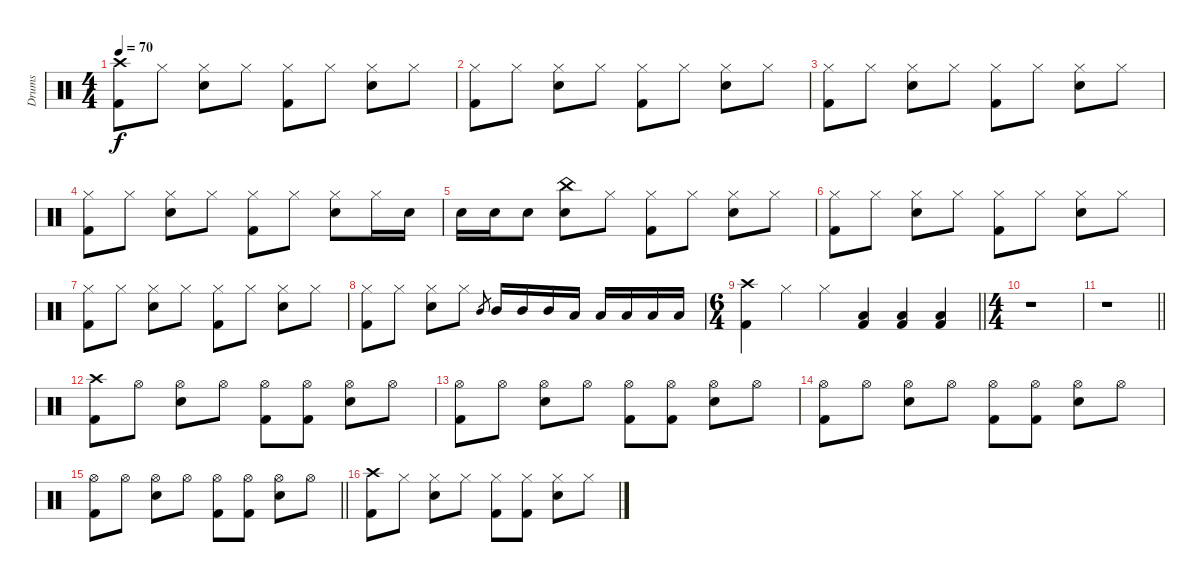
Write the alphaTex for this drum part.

\track ("Drums" "Drums") {instrument percussion}
\staff {score}
\articulation defaults
\ts (4 4)
\tempo 70
\clef neutral
\ks c
("Crash high (hit)" "Kick (hit) 2").8{dy f} "Hi-Hat (closed)".8 ("Hi-Hat (closed)" "Electric Snare (hit)").8 "Hi-Hat (closed)".8 ("Hi-Hat (closed)" "Kick (hit) 2").8 "Hi-Hat (closed)".8 ("Hi-Hat (closed)" "Electric Snare (hit)").8 "Hi-Hat (closed)".8 |
("Hi-Hat (closed)" "Kick (hit) 2").8 "Hi-Hat (closed)".8 ("Hi-Hat (closed)" "Electric Snare (hit)").8 "Hi-Hat (closed)".8 ("Hi-Hat (closed)" "Kick (hit) 2").8 "Hi-Hat (closed)".8 ("Hi-Hat (closed)" "Electric Snare (hit)").8 "Hi-Hat (closed)".8 |
("Hi-Hat (closed)" "Kick (hit) 2").8 "Hi-Hat (closed)".8 ("Hi-Hat (closed)" "Electric Snare (hit)").8 "Hi-Hat (closed)".8 ("Hi-Hat (closed)" "Kick (hit) 2").8 "Hi-Hat (closed)".8 ("Hi-Hat (closed)" "Electric Snare (hit)").8 "Hi-Hat (closed)".8 |
("Hi-Hat (closed)" "Kick (hit) 2").8 "Hi-Hat (closed)".8 ("Hi-Hat (closed)" "Electric Snare (hit)").8 "Hi-Hat (closed)".8 ("Hi-Hat (closed)" "Kick (hit) 2").8 "Hi-Hat (closed)".8 ("Hi-Hat (closed)" "Electric Snare (hit)").8 "Hi-Hat (closed)".16 "Electric Snare (hit)".16 |
"Electric Snare (hit)".16 "Electric Snare (hit)".16 "Electric Snare (hit)".8 ("China (hit)" "Electric Snare (hit)").8 "Hi-Hat (closed)".8 ("Hi-Hat (closed)" "Kick (hit) 2").8 "Hi-Hat (closed)".8 ("Hi-Hat (closed)" "Electric Snare (hit)").8 "Hi-Hat (closed)".8 |
("Hi-Hat (closed)" "Kick (hit) 2").8 "Hi-Hat (closed)".8 ("Hi-Hat (closed)" "Electric Snare (hit)").8 "Hi-Hat (closed)".8 ("Hi-Hat (closed)" "Kick (hit) 2").8 "Hi-Hat (closed)".8 ("Hi-Hat (closed)" "Electric Snare (hit)").8 "Hi-Hat (closed)".8 |
("Hi-Hat (closed)" "Kick (hit) 2").8 "Hi-Hat (closed)".8 ("Hi-Hat (closed)" "Electric Snare (hit)").8 "Hi-Hat (closed)".8 ("Hi-Hat (closed)" "Kick (hit) 2").8 "Hi-Hat (closed)".8 ("Hi-Hat (closed)" "Electric Snare (hit)").8 "Hi-Hat (closed)".8 |
("Hi-Hat (closed)" "Kick (hit) 2").8 "Hi-Hat (closed)".8 ("Hi-Hat (closed)" "Electric Snare (hit)").8 "Hi-Hat (closed)".8 "Mid Tom (hit)".8{gr} "Mid Tom (hit)".16 "Mid Tom (hit)".16 "Mid Tom (hit)".16 "Low Tom (hit)".16 "Low Tom (hit)".16 "Low Tom (hit)".16 "Low Floor Tom (hit)".16 "Low Floor Tom (hit)".16 |
\ts (6 4)
\barLineRight lightlight
("Crash high (hit)" "Kick (hit) 2").4 "Hi-Hat (closed)".4 "Hi-Hat (closed)".4 ("Low Floor Tom (hit)" "Kick (hit) 2").4 ("Low Floor Tom (hit)" "Kick (hit) 2").4 ("Low Floor Tom (hit)" "Kick (hit) 2").4 |
\ts (4 4)
r.1 |
\barLineRight lightlight
r.1 |
("Crash high (hit)" "Kick (hit) 2").8 "Hi-Hat (open)".8 ("Hi-Hat (open)" "Electric Snare (hit)").8 "Hi-Hat (open)".8 ("Hi-Hat (open)" "Kick (hit) 2").8 ("Hi-Hat (open)" "Kick (hit) 2").8 ("Hi-Hat (open)" "Electric Snare (hit)").8 "Hi-Hat (open)".8 |
("Hi-Hat (open)" "Kick (hit) 2").8 "Hi-Hat (open)".8 ("Hi-Hat (open)" "Electric Snare (hit)").8 "Hi-Hat (open)".8 ("Hi-Hat (open)" "Kick (hit) 2").8 ("Hi-Hat (open)" "Kick (hit) 2").8 ("Hi-Hat (open)" "Electric Snare (hit)").8 "Hi-Hat (open)".8 |
("Hi-Hat (open)" "Kick (hit) 2").8 "Hi-Hat (open)".8 ("Hi-Hat (open)" "Electric Snare (hit)").8 "Hi-Hat (open)".8 ("Hi-Hat (open)" "Kick (hit) 2").8 ("Hi-Hat (open)" "Kick (hit) 2").8 ("Hi-Hat (open)" "Electric Snare (hit)").8 "Hi-Hat (open)".8 |
\barLineRight lightlight
("Hi-Hat (open)" "Kick (hit) 2").8 "Hi-Hat (open)".8 ("Hi-Hat (open)" "Electric Snare (hit)").8 "Hi-Hat (open)".8 ("Hi-Hat (open)" "Kick (hit) 2").8 ("Hi-Hat (open)" "Kick (hit) 2").8 ("Hi-Hat (open)" "Electric Snare (hit)").8 "Hi-Hat (open)".8 |
("Crash high (hit)" "Kick (hit) 2").8 "Hi-Hat (closed)".8 ("Hi-Hat (closed)" "Electric Snare (hit)").8 "Hi-Hat (closed)".8 ("Hi-Hat (closed)" "Kick (hit) 2").8 ("Hi-Hat (closed)" "Kick (hit) 2").8 ("Hi-Hat (closed)" "Electric Snare (hit)").8 "Hi-Hat (closed)".8
